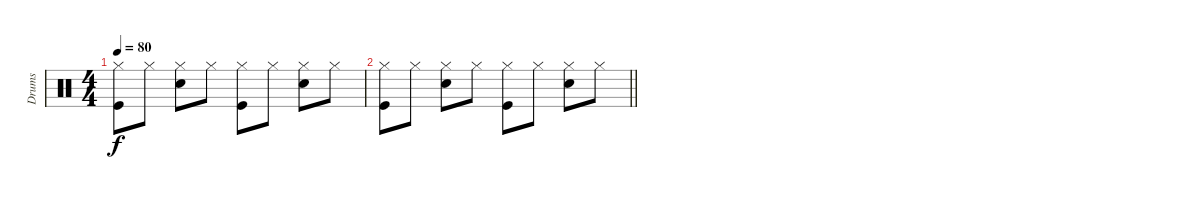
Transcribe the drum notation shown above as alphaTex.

\track ("Drums" "Drums") {instrument percussion}
\staff {score}
\articulation defaults
\ts (4 4)
\tempo 80
\clef neutral
\ks c
("Hi-Hat (closed)" "Kick (hit)").8{dy f} "Hi-Hat (closed)".8 ("Hi-Hat (closed)" "Snare (hit) 2").8 "Hi-Hat (closed)".8 ("Hi-Hat (closed)" "Kick (hit)").8 "Hi-Hat (closed)".8 ("Hi-Hat (closed)" "Snare (hit) 2").8 "Hi-Hat (closed)".8 |
\barLineRight lightlight
("Hi-Hat (closed)" "Kick (hit)").8 "Hi-Hat (closed)".8 ("Hi-Hat (closed)" "Snare (hit) 2").8 "Hi-Hat (closed)".8 ("Hi-Hat (closed)" "Kick (hit)").8 "Hi-Hat (closed)".8 ("Hi-Hat (closed)" "Snare (hit) 2").8 "Hi-Hat (closed)".8
